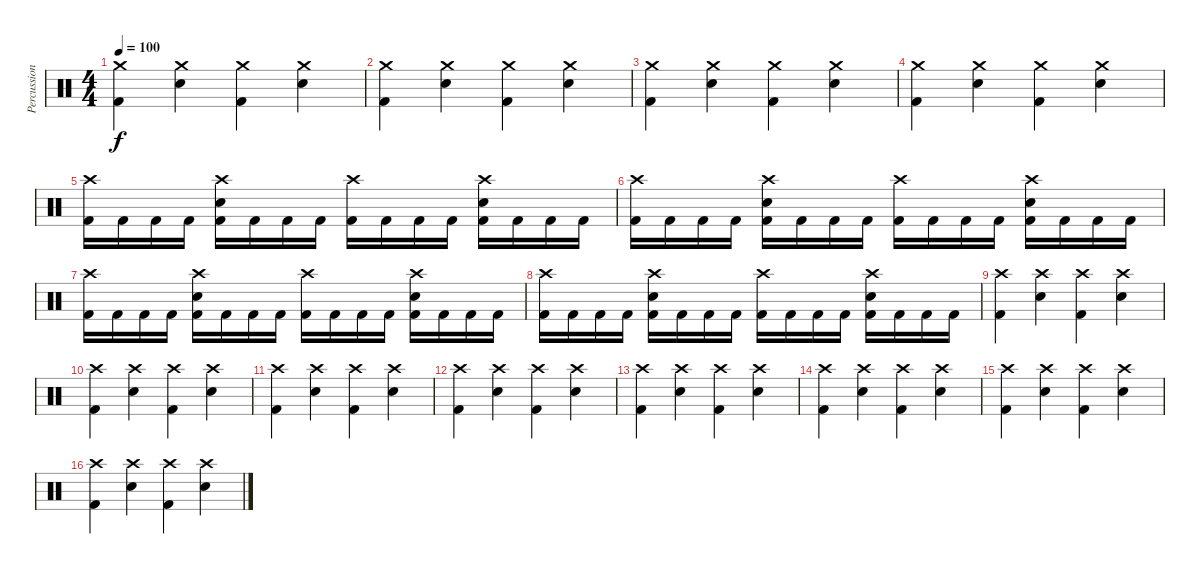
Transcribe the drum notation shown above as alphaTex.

\track ("Percussion" "Percussion") {instrument percussion}
\staff {score}
\articulation defaults
\ts (4 4)
\tempo 100
\clef neutral
\ks c
("Crash medium (hit)" "Kick (hit) 2").4{dy f} ("Crash medium (hit)" "Electric Snare (hit)").4 ("Crash medium (hit)" "Kick (hit) 2").4 ("Crash medium (hit)" "Electric Snare (hit)").4 |
("Crash medium (hit)" "Kick (hit) 2").4 ("Crash medium (hit)" "Electric Snare (hit)").4 ("Crash medium (hit)" "Kick (hit) 2").4 ("Crash medium (hit)" "Electric Snare (hit)").4 |
("Crash medium (hit)" "Kick (hit) 2").4 ("Crash medium (hit)" "Electric Snare (hit)").4 ("Crash medium (hit)" "Kick (hit) 2").4 ("Crash medium (hit)" "Electric Snare (hit)").4 |
("Crash medium (hit)" "Kick (hit) 2").4 ("Crash medium (hit)" "Electric Snare (hit)").4 ("Crash medium (hit)" "Kick (hit) 2").4 ("Crash medium (hit)" "Electric Snare (hit)").4 |
("Kick (hit) 2" "Crash high (hit)").16 "Kick (hit) 2".16 "Kick (hit) 2".16 "Kick (hit) 2".16 ("Kick (hit) 2" "Crash high (hit)" "Electric Snare (hit)").16 "Kick (hit) 2".16 "Kick (hit) 2".16 "Kick (hit) 2".16 ("Kick (hit) 2" "Crash high (hit)").16 "Kick (hit) 2".16 "Kick (hit) 2".16 "Kick (hit) 2".16 ("Kick (hit) 2" "Crash high (hit)" "Electric Snare (hit)").16 "Kick (hit) 2".16 "Kick (hit) 2".16 "Kick (hit) 2".16 |
("Kick (hit) 2" "Crash high (hit)").16 "Kick (hit) 2".16 "Kick (hit) 2".16 "Kick (hit) 2".16 ("Kick (hit) 2" "Crash high (hit)" "Electric Snare (hit)").16 "Kick (hit) 2".16 "Kick (hit) 2".16 "Kick (hit) 2".16 ("Kick (hit) 2" "Crash high (hit)").16 "Kick (hit) 2".16 "Kick (hit) 2".16 "Kick (hit) 2".16 ("Kick (hit) 2" "Crash high (hit)" "Electric Snare (hit)").16 "Kick (hit) 2".16 "Kick (hit) 2".16 "Kick (hit) 2".16 |
("Kick (hit) 2" "Crash high (hit)").16 "Kick (hit) 2".16 "Kick (hit) 2".16 "Kick (hit) 2".16 ("Kick (hit) 2" "Crash high (hit)" "Electric Snare (hit)").16 "Kick (hit) 2".16 "Kick (hit) 2".16 "Kick (hit) 2".16 ("Kick (hit) 2" "Crash high (hit)").16 "Kick (hit) 2".16 "Kick (hit) 2".16 "Kick (hit) 2".16 ("Kick (hit) 2" "Crash high (hit)" "Electric Snare (hit)").16 "Kick (hit) 2".16 "Kick (hit) 2".16 "Kick (hit) 2".16 |
("Kick (hit) 2" "Crash high (hit)").16 "Kick (hit) 2".16 "Kick (hit) 2".16 "Kick (hit) 2".16 ("Kick (hit) 2" "Crash high (hit)" "Electric Snare (hit)").16 "Kick (hit) 2".16 "Kick (hit) 2".16 "Kick (hit) 2".16 ("Kick (hit) 2" "Crash high (hit)").16 "Kick (hit) 2".16 "Kick (hit) 2".16 "Kick (hit) 2".16 ("Kick (hit) 2" "Crash high (hit)" "Electric Snare (hit)").16 "Kick (hit) 2".16 "Kick (hit) 2".16 "Kick (hit) 2".16 |
("Crash high (hit)" "Kick (hit) 2").4 ("Crash high (hit)" "Electric Snare (hit)").4 ("Crash high (hit)" "Kick (hit) 2").4 ("Crash high (hit)" "Electric Snare (hit)").4 |
("Crash high (hit)" "Kick (hit) 2").4 ("Crash high (hit)" "Electric Snare (hit)").4 ("Crash high (hit)" "Kick (hit) 2").4 ("Crash high (hit)" "Electric Snare (hit)").4 |
("Crash high (hit)" "Kick (hit) 2").4 ("Crash high (hit)" "Electric Snare (hit)").4 ("Crash high (hit)" "Kick (hit) 2").4 ("Crash high (hit)" "Electric Snare (hit)").4 |
("Crash high (hit)" "Kick (hit) 2").4 ("Crash high (hit)" "Electric Snare (hit)").4 ("Crash high (hit)" "Kick (hit) 2").4 ("Crash high (hit)" "Electric Snare (hit)").4 |
("Crash high (hit)" "Kick (hit) 2").4 ("Crash high (hit)" "Electric Snare (hit)").4 ("Crash high (hit)" "Kick (hit) 2").4 ("Crash high (hit)" "Electric Snare (hit)").4 |
("Crash high (hit)" "Kick (hit) 2").4 ("Crash high (hit)" "Electric Snare (hit)").4 ("Crash high (hit)" "Kick (hit) 2").4 ("Crash high (hit)" "Electric Snare (hit)").4 |
("Crash high (hit)" "Kick (hit) 2").4 ("Crash high (hit)" "Electric Snare (hit)").4 ("Crash high (hit)" "Kick (hit) 2").4 ("Crash high (hit)" "Electric Snare (hit)").4 |
("Crash high (hit)" "Kick (hit) 2").4 ("Crash high (hit)" "Electric Snare (hit)").4 ("Crash high (hit)" "Kick (hit) 2").4 ("Crash high (hit)" "Electric Snare (hit)").4
